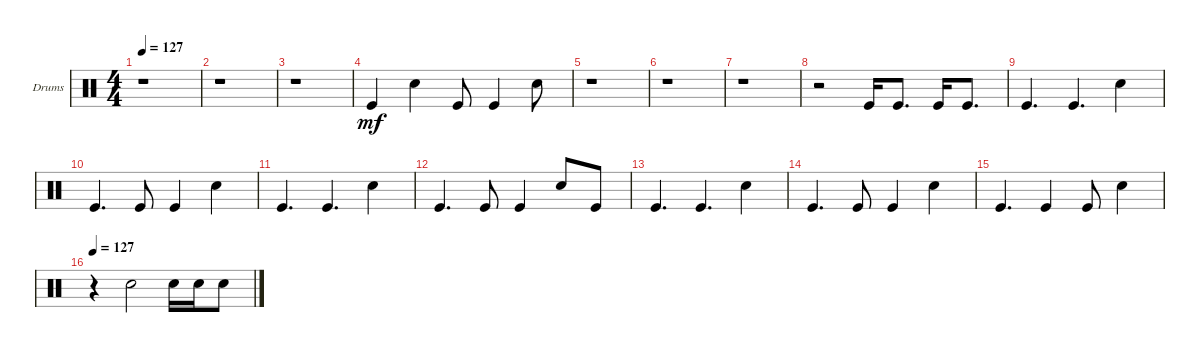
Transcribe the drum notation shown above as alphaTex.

\bracketExtendMode groupsimilarinstruments
\firstSystemTrackNameOrientation horizontal
\otherSystemsTrackNameOrientation horizontal
\track ("Drums" "Drums") {instrument percussion}
\staff {score}
\articulation defaults
\ts (4 4)
\tempo 127
\clef neutral
\ks c
r.1{dy mf} |
r.1 |
r.1 |
"Kick (hit)".4 "Snare (hit) 2".4 "Kick (hit)".8 "Kick (hit)".4 "Snare (hit) 2".8 |
r.1 |
r.1 |
r.1 |
r.2 "Kick (hit)".16 "Kick (hit)".8{d} "Kick (hit)".16 "Kick (hit)".8{d} |
"Kick (hit)".4{d} "Kick (hit)".4{d} "Snare (hit) 2".4 |
"Kick (hit)".4{d} "Kick (hit)".8 "Kick (hit)".4 "Snare (hit) 2".4 |
"Kick (hit)".4{d} "Kick (hit)".4{d} "Snare (hit) 2".4 |
"Kick (hit)".4{d} "Kick (hit)".8 "Kick (hit)".4 "Snare (hit) 2".8 "Kick (hit)".8 |
"Kick (hit)".4{d} "Kick (hit)".4{d} "Snare (hit) 2".4 |
"Kick (hit)".4{d} "Kick (hit)".8 "Kick (hit)".4 "Snare (hit) 2".4 |
"Kick (hit)".4{d} "Kick (hit)".4 "Kick (hit)".8 "Snare (hit) 2".4 |
\tempo 127
r.4 "Snare (hit) 2".2 "Snare (hit) 2".16 "Snare (hit) 2".16 "Snare (hit) 2".8
